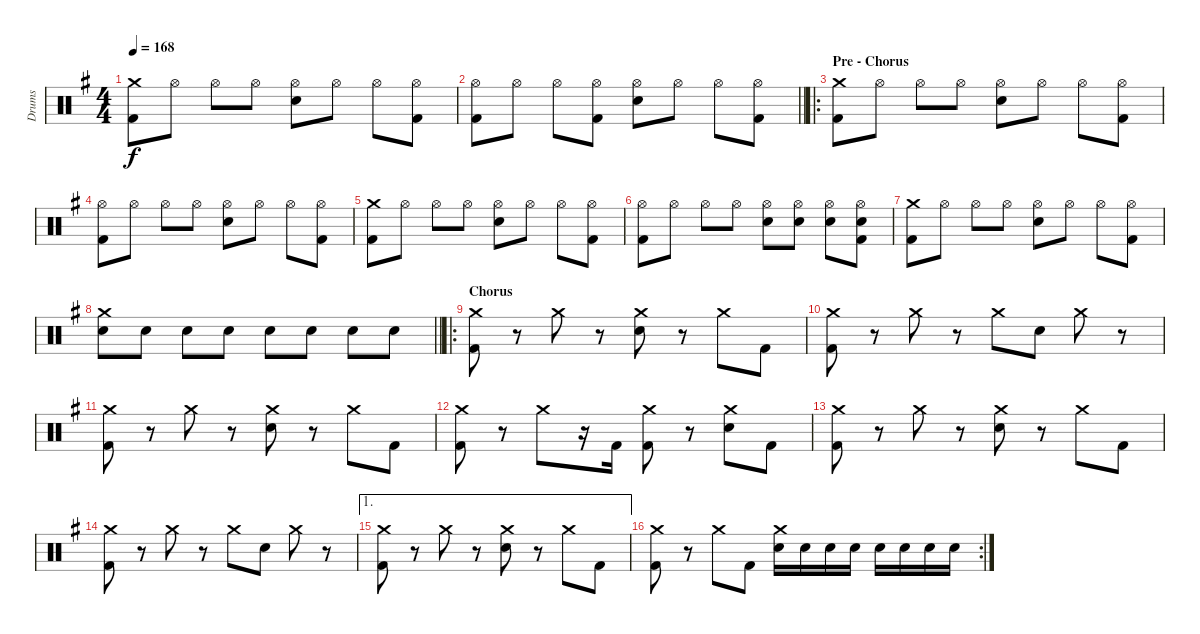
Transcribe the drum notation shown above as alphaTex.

\track ("Drums" "Drums") {instrument percussion}
\staff {score}
\articulation defaults
\ts (4 4)
\tempo 168
\clef neutral
\ks g
("Crash medium (hit)" "Kick (hit) 2").8{dy f} "Hi-Hat (open)".8 "Hi-Hat (open)".8 "Hi-Hat (open)".8 ("Hi-Hat (open)" "Electric Snare (hit)").8 "Hi-Hat (open)".8 "Hi-Hat (open)".8 ("Hi-Hat (open)" "Kick (hit) 2").8 |
\barLineRight lightlight
("Hi-Hat (open)" "Kick (hit) 2").8 "Hi-Hat (open)".8 "Hi-Hat (open)".8 ("Hi-Hat (open)" "Kick (hit) 2").8 ("Hi-Hat (open)" "Electric Snare (hit)").8 "Hi-Hat (open)".8 "Hi-Hat (open)".8 ("Hi-Hat (open)" "Kick (hit) 2").8 |
\ro
\section ("" "Pre - Chorus")
("Crash medium (hit)" "Kick (hit) 2").8 "Hi-Hat (open)".8 "Hi-Hat (open)".8 "Hi-Hat (open)".8 ("Hi-Hat (open)" "Electric Snare (hit)").8 "Hi-Hat (open)".8 "Hi-Hat (open)".8 ("Hi-Hat (open)" "Kick (hit) 2").8 |
("Hi-Hat (open)" "Kick (hit) 2").8 "Hi-Hat (open)".8 "Hi-Hat (open)".8 "Hi-Hat (open)".8 ("Hi-Hat (open)" "Electric Snare (hit)").8 "Hi-Hat (open)".8 "Hi-Hat (open)".8 ("Hi-Hat (open)" "Kick (hit) 2").8 |
("Crash medium (hit)" "Kick (hit) 2").8 "Hi-Hat (open)".8 "Hi-Hat (open)".8 "Hi-Hat (open)".8 ("Hi-Hat (open)" "Electric Snare (hit)").8 "Hi-Hat (open)".8 "Hi-Hat (open)".8 ("Hi-Hat (open)" "Kick (hit) 2").8 |
("Hi-Hat (open)" "Kick (hit) 2").8 "Hi-Hat (open)".8 "Hi-Hat (open)".8 "Hi-Hat (open)".8 ("Hi-Hat (open)" "Electric Snare (hit)").8 ("Hi-Hat (open)" "Electric Snare (hit)").8 ("Hi-Hat (open)" "Electric Snare (hit)").8 ("Hi-Hat (open)" "Electric Snare (hit)" "Kick (hit) 2").8 |
("Crash medium (hit)" "Kick (hit) 2").8 "Hi-Hat (open)".8 "Hi-Hat (open)".8 "Hi-Hat (open)".8 ("Hi-Hat (open)" "Electric Snare (hit)").8 "Hi-Hat (open)".8 "Hi-Hat (open)".8 ("Hi-Hat (open)" "Kick (hit) 2").8 |
\barLineRight lightlight
("Crash medium (hit)" "Electric Snare (hit)").8 "Electric Snare (hit)".8 "Electric Snare (hit)".8 "Electric Snare (hit)".8 "Electric Snare (hit)".8 "Electric Snare (hit)".8 "Electric Snare (hit)".8 "Electric Snare (hit)".8 |
\ro
\section ("" "Chorus")
("Crash medium (hit)" "Kick (hit) 2").8 r.8 "Crash medium (hit)".8 r.8 ("Crash medium (hit)" "Electric Snare (hit)").8 r.8 "Crash medium (hit)".8 "Kick (hit) 2".8 |
("Crash medium (hit)" "Kick (hit) 2").8 r.8 "Crash medium (hit)".8 r.8 "Crash medium (hit)".8 "Electric Snare (hit)".8 "Crash medium (hit)".8 r.8 |
("Crash medium (hit)" "Kick (hit) 2").8 r.8 "Crash medium (hit)".8 r.8 ("Crash medium (hit)" "Electric Snare (hit)").8 r.8 "Crash medium (hit)".8 "Kick (hit) 2".8 |
("Crash medium (hit)" "Kick (hit) 2").8 r.8 "Crash medium (hit)".8 r.16 "Kick (hit) 2".16 ("Crash medium (hit)" "Kick (hit) 2").8 r.8 ("Crash medium (hit)" "Electric Snare (hit)").8 "Kick (hit) 2".8 |
("Crash medium (hit)" "Kick (hit) 2").8 r.8 "Crash medium (hit)".8 r.8 ("Crash medium (hit)" "Electric Snare (hit)").8 r.8 "Crash medium (hit)".8 "Kick (hit) 2".8 |
("Crash medium (hit)" "Kick (hit) 2").8 r.8 "Crash medium (hit)".8 r.8 "Crash medium (hit)".8 "Electric Snare (hit)".8 "Crash medium (hit)".8 r.8 |
\ae 1
("Crash medium (hit)" "Kick (hit) 2").8 r.8 "Crash medium (hit)".8 r.8 ("Crash medium (hit)" "Electric Snare (hit)").8 r.8 "Crash medium (hit)".8 "Kick (hit) 2".8 |
\rc 2
("Crash medium (hit)" "Kick (hit) 2").8 r.8 "Crash medium (hit)".8 "Kick (hit) 2".8 ("Crash medium (hit)" "Electric Snare (hit)").16 "Electric Snare (hit)".16 "Electric Snare (hit)".16 "Electric Snare (hit)".16 "Electric Snare (hit)".16 "Electric Snare (hit)".16 "Electric Snare (hit)".16 "Electric Snare (hit)".16
